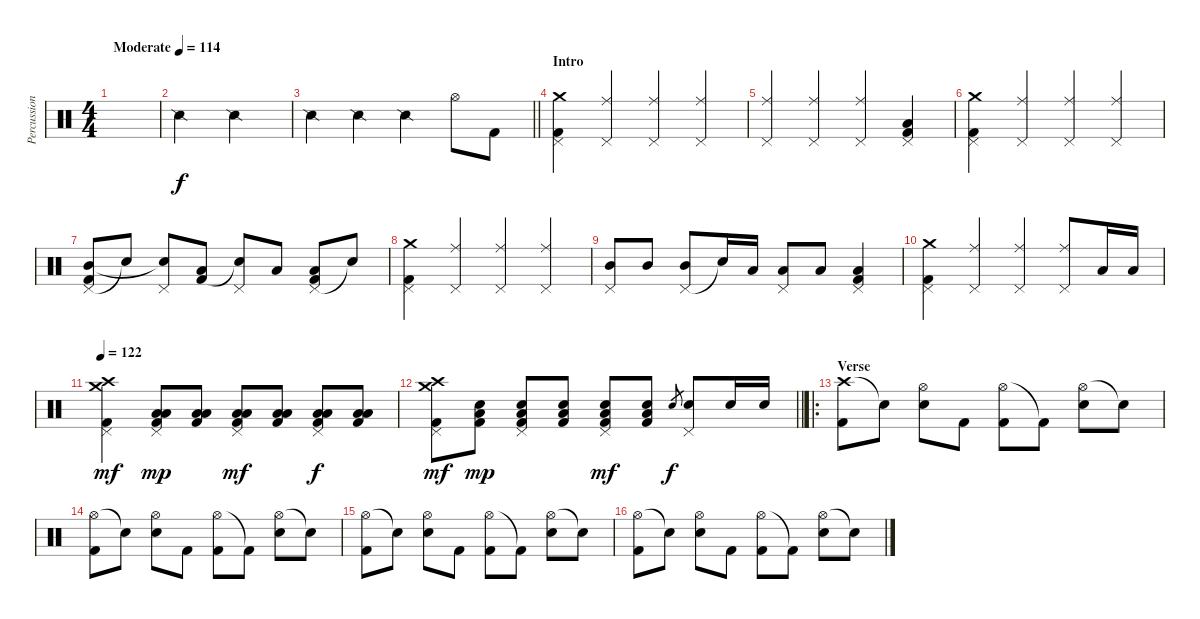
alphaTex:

\track ("Percussioni" "Percussion") {instrument percussion}
\staff {score}
\articulation defaults
\ts (4 4)
\tempo (114 "Moderate")
\clef neutral
\ks c
|
"Snare (side stick) 2".2{volume 16 balance 8} "Snare (side stick) 2".2 |
\barLineRight lightlight "Snare (side stick) 2".4 "Snare (side stick) 2".4 "Snare (side stick) 2".4 "Hi-Hat (open)".8 "Kick (hit) 2".8
|
\section ("" "Intro")
("Pedal Hi-Hat (hit)" "Crash medium (hit)" "Kick (hit) 2").4 ("Pedal Hi-Hat (hit)" "Ride (middle)").4 ("Pedal Hi-Hat (hit)" "Ride (middle)").4 ("Pedal Hi-Hat (hit)" "Ride (middle)").4 |
("Pedal Hi-Hat (hit)" "Ride (middle)").4 ("Pedal Hi-Hat (hit)" "Ride (middle)").4 ("Pedal Hi-Hat (hit)" "Ride (middle)").4 ("Pedal Hi-Hat (hit)" "Low Floor Tom (hit)" "Kick (hit) 2").4 |
("Pedal Hi-Hat (hit)" "Crash medium (hit)" "Kick (hit) 2").4 ("Pedal Hi-Hat (hit)" "Ride (middle)").4 ("Pedal Hi-Hat (hit)" "Ride (middle)").4 ("Pedal Hi-Hat (hit)" "Ride (middle)").4 |
("Pedal Hi-Hat (hit)" "Mid Tom (hit)" "Kick (hit) 2").8 "Snare (hit)"{t}.8 ("Pedal Hi-Hat (hit)" "Snare (hit)"{t}).8 ("Low Tom (hit)" "Kick (hit) 2").8 ("Pedal Hi-Hat (hit)" "Snare (hit)"{t}).8 "Low Floor Tom (hit)".8 ("Pedal Hi-Hat (hit)" "Low Floor Tom (hit)" "Kick (hit) 2").8 "Snare (hit)"{t}.8 |
("Pedal Hi-Hat (hit)" "Crash medium (hit)" "Kick (hit) 2").4 ("Pedal Hi-Hat (hit)" "Ride (middle)").4 ("Pedal Hi-Hat (hit)" "Ride (middle)").4 ("Pedal Hi-Hat (hit)" "Ride (middle)").4 |
("Pedal Hi-Hat (hit)" "Mid Tom (hit)").8 "Mid Tom (hit)".8 ("Pedal Hi-Hat (hit)" "Mid Tom (hit)").8 "Snare (hit)"{t}.16 "Low Tom (hit)".16 ("Pedal Hi-Hat (hit)" "Low Tom (hit)").8 "Low Floor Tom (hit)".8 ("Pedal Hi-Hat (hit)" "Low Floor Tom (hit)" "Kick (hit) 2").4 |
("Pedal Hi-Hat (hit)" "Crash medium (hit)" "Kick (hit) 2").4 ("Pedal Hi-Hat (hit)" "Ride (middle)").4 ("Pedal Hi-Hat (hit)" "Ride (middle)").4 ("Pedal Hi-Hat (hit)" "Ride (middle)").8 "Low Tom (hit)".16 "Low Tom (hit)".16 |
\tempo 122
("Pedal Hi-Hat (hit)" "Crash medium (hit)" "Crash high (hit)" "Kick (hit) 2").4{dy mf} ("Pedal Hi-Hat (hit)" "Low Tom (hit)" "Low Floor Tom (hit)" "Kick (hit) 2").8{dy mp} ("Low Tom (hit)" "Low Floor Tom (hit)" "Kick (hit) 2").8 ("Pedal Hi-Hat (hit)" "Low Tom (hit)" "Low Floor Tom (hit)" "Kick (hit) 2").8{dy mf} ("Low Tom (hit)" "Low Floor Tom (hit)" "Kick (hit) 2").8 ("Pedal Hi-Hat (hit)" "Low Tom (hit)" "Low Floor Tom (hit)" "Kick (hit) 2").8{dy f} ("Low Tom (hit)" "Low Floor Tom (hit)" "Kick (hit) 2").8 |
\barLineRight lightlight
("Pedal Hi-Hat (hit)" "Crash medium (hit)" "Crash high (hit)" "Kick (hit) 2").8{dy mf} ("Snare (hit) 2" "Low Floor Tom (hit)" "Kick (hit) 2").8{dy mp} ("Pedal Hi-Hat (hit)" "Snare (hit) 2" "Low Floor Tom (hit)" "Kick (hit) 2").8 ("Snare (hit) 2" "Low Floor Tom (hit)" "Kick (hit) 2").8 ("Pedal Hi-Hat (hit)" "Snare (hit) 2" "Low Floor Tom (hit)" "Kick (hit) 2").8{dy mf} ("Snare (hit) 2" "Low Floor Tom (hit)" "Kick (hit) 2").8 "Snare (hit) 2".8{gr dy f} ("Pedal Hi-Hat (hit)" "Snare (hit) 2").8 "Snare (hit) 2".16 "Snare (hit) 2".16 |
\ro
\section ("" "Verse")
("Crash high (hit)" "Kick (hit) 2").8 "Snare (hit)"{t}.8 ("Hi-Hat (open)" "Snare (hit) 2").8 "Kick (hit) 2".8 ("Hi-Hat (open)" "Kick (hit) 2").8 "Kick (hit) 2"{t}.8 ("Hi-Hat (open)" "Snare (hit) 2").8 "Snare (hit)"{t}.8 |
("Hi-Hat (open)" "Kick (hit) 2").8 "Snare (hit)"{t}.8 ("Hi-Hat (open)" "Snare (hit) 2").8 "Kick (hit) 2".8 ("Hi-Hat (open)" "Kick (hit) 2").8 "Kick (hit) 2"{t}.8 ("Hi-Hat (open)" "Snare (hit) 2").8 "Snare (hit)"{t}.8 |
("Hi-Hat (open)" "Kick (hit) 2").8 "Snare (hit)"{t}.8 ("Hi-Hat (open)" "Snare (hit) 2").8 "Kick (hit) 2".8 ("Hi-Hat (open)" "Kick (hit) 2").8 "Kick (hit) 2"{t}.8 ("Hi-Hat (open)" "Snare (hit) 2").8 "Snare (hit)"{t}.8 |
("Hi-Hat (open)" "Kick (hit) 2").8 "Snare (hit)"{t}.8 ("Hi-Hat (open)" "Snare (hit) 2").8 "Kick (hit) 2".8 ("Hi-Hat (open)" "Kick (hit) 2").8 "Kick (hit) 2"{t}.8 ("Hi-Hat (open)" "Snare (hit) 2").8 "Snare (hit)"{t}.8
